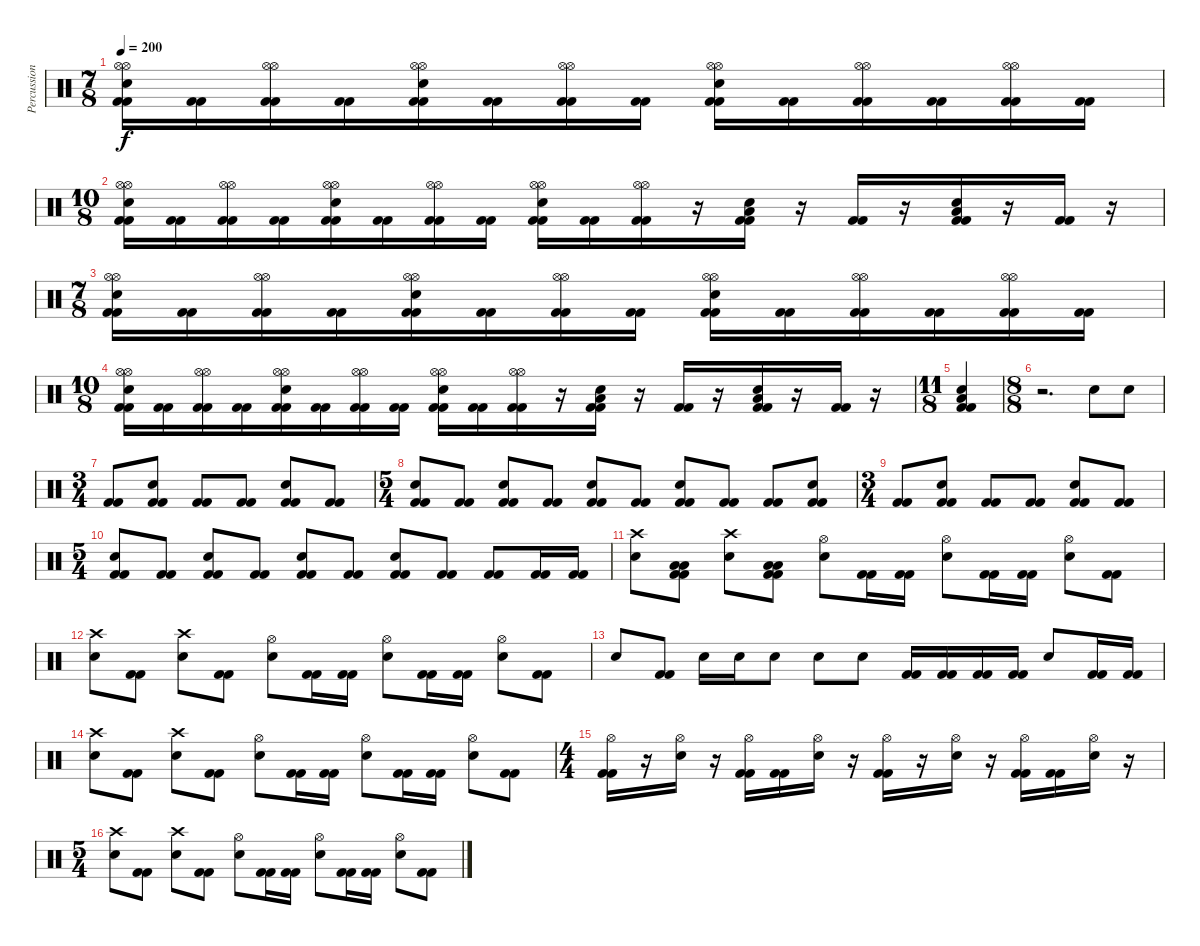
\track ("Percussions" "Percussion") {instrument percussion}
\staff {score}
\articulation defaults
\ts (7 8)
\tempo 200
\clef neutral
\ks c
("Kick (hit) 2" "Kick (hit) 2" "Electric Snare (hit)" "Hi-Hat (open)" "Hi-Hat (open)").16{dy f} ("Kick (hit) 2" "Kick (hit) 2").16 ("Kick (hit) 2" "Kick (hit) 2" "Hi-Hat (open)" "Hi-Hat (open)").16 ("Kick (hit) 2" "Kick (hit) 2").16 ("Kick (hit) 2" "Kick (hit) 2" "Electric Snare (hit)" "Hi-Hat (open)" "Hi-Hat (open)").16 ("Kick (hit) 2" "Kick (hit) 2").16 ("Kick (hit) 2" "Kick (hit) 2" "Hi-Hat (open)" "Hi-Hat (open)").16 ("Kick (hit) 2" "Kick (hit) 2").16 ("Kick (hit) 2" "Kick (hit) 2" "Electric Snare (hit)" "Hi-Hat (open)" "Hi-Hat (open)").16 ("Kick (hit) 2" "Kick (hit) 2").16 ("Kick (hit) 2" "Kick (hit) 2" "Hi-Hat (open)" "Hi-Hat (open)").16 ("Kick (hit) 2" "Kick (hit) 2").16 ("Kick (hit) 2" "Kick (hit) 2" "Hi-Hat (open)" "Hi-Hat (open)").16 ("Kick (hit) 2" "Kick (hit) 2").16 |
\ts (10 8)
("Kick (hit) 2" "Kick (hit) 2" "Electric Snare (hit)" "Hi-Hat (open)" "Hi-Hat (open)").16 ("Kick (hit) 2" "Kick (hit) 2").16 ("Kick (hit) 2" "Kick (hit) 2" "Hi-Hat (open)" "Hi-Hat (open)").16 ("Kick (hit) 2" "Kick (hit) 2").16 ("Kick (hit) 2" "Kick (hit) 2" "Electric Snare (hit)" "Hi-Hat (open)" "Hi-Hat (open)").16 ("Kick (hit) 2" "Kick (hit) 2").16 ("Kick (hit) 2" "Kick (hit) 2" "Hi-Hat (open)" "Hi-Hat (open)").16 ("Kick (hit) 2" "Kick (hit) 2").16 ("Kick (hit) 2" "Kick (hit) 2" "Electric Snare (hit)" "Hi-Hat (open)" "Hi-Hat (open)").16 ("Kick (hit) 2" "Kick (hit) 2").16 ("Kick (hit) 2" "Kick (hit) 2" "Hi-Hat (open)" "Hi-Hat (open)").16 r.16 ("Kick (hit) 2" "Kick (hit) 2" "Electric Snare (hit)" "Low Floor Tom (hit)").16 r.16 ("Kick (hit) 2" "Kick (hit) 2").16 r.16 ("Kick (hit) 2" "Kick (hit) 2" "Electric Snare (hit)" "Low Floor Tom (hit)").16 r.16 ("Kick (hit) 2" "Kick (hit) 2").16 r.16 |
\ts (7 8)
("Kick (hit) 2" "Kick (hit) 2" "Electric Snare (hit)" "Hi-Hat (open)" "Hi-Hat (open)").16 ("Kick (hit) 2" "Kick (hit) 2").16 ("Kick (hit) 2" "Kick (hit) 2" "Hi-Hat (open)" "Hi-Hat (open)").16 ("Kick (hit) 2" "Kick (hit) 2").16 ("Kick (hit) 2" "Kick (hit) 2" "Electric Snare (hit)" "Hi-Hat (open)" "Hi-Hat (open)").16 ("Kick (hit) 2" "Kick (hit) 2").16 ("Kick (hit) 2" "Kick (hit) 2" "Hi-Hat (open)" "Hi-Hat (open)").16 ("Kick (hit) 2" "Kick (hit) 2").16 ("Kick (hit) 2" "Kick (hit) 2" "Electric Snare (hit)" "Hi-Hat (open)" "Hi-Hat (open)").16 ("Kick (hit) 2" "Kick (hit) 2").16 ("Kick (hit) 2" "Kick (hit) 2" "Hi-Hat (open)" "Hi-Hat (open)").16 ("Kick (hit) 2" "Kick (hit) 2").16 ("Kick (hit) 2" "Kick (hit) 2" "Hi-Hat (open)" "Hi-Hat (open)").16 ("Kick (hit) 2" "Kick (hit) 2").16 |
\ts (10 8)
("Kick (hit) 2" "Kick (hit) 2" "Electric Snare (hit)" "Hi-Hat (open)" "Hi-Hat (open)").16 ("Kick (hit) 2" "Kick (hit) 2").16 ("Kick (hit) 2" "Kick (hit) 2" "Hi-Hat (open)" "Hi-Hat (open)").16 ("Kick (hit) 2" "Kick (hit) 2").16 ("Kick (hit) 2" "Kick (hit) 2" "Electric Snare (hit)" "Hi-Hat (open)" "Hi-Hat (open)").16 ("Kick (hit) 2" "Kick (hit) 2").16 ("Kick (hit) 2" "Kick (hit) 2" "Hi-Hat (open)" "Hi-Hat (open)").16 ("Kick (hit) 2" "Kick (hit) 2").16 ("Kick (hit) 2" "Kick (hit) 2" "Electric Snare (hit)" "Hi-Hat (open)" "Hi-Hat (open)").16 ("Kick (hit) 2" "Kick (hit) 2").16 ("Kick (hit) 2" "Kick (hit) 2" "Hi-Hat (open)" "Hi-Hat (open)").16 r.16 ("Kick (hit) 2" "Kick (hit) 2" "Electric Snare (hit)" "Low Floor Tom (hit)").16 r.16 ("Kick (hit) 2" "Kick (hit) 2").16 r.16 ("Kick (hit) 2" "Kick (hit) 2" "Electric Snare (hit)" "Low Floor Tom (hit)").16 r.16 ("Kick (hit) 2" "Kick (hit) 2").16 r.16 |
\ts (11 8)
("Electric Snare (hit)" "Kick (hit) 2" "Kick (hit) 2" "Low Floor Tom (hit)").4 |
\ts (8 8)
r.2{d} "Electric Snare (hit)".8 "Electric Snare (hit)".8 |
\ts (3 4)
("Kick (hit) 2" "Kick (hit) 2").8{volume 12} ("Kick (hit) 2" "Kick (hit) 2" "Electric Snare (hit)").8 ("Kick (hit) 2" "Kick (hit) 2").8 ("Kick (hit) 2" "Kick (hit) 2").8 ("Kick (hit) 2" "Kick (hit) 2" "Electric Snare (hit)").8 ("Kick (hit) 2" "Kick (hit) 2").8 |
\ts (5 4)
("Kick (hit) 2" "Kick (hit) 2" "Electric Snare (hit)").8 ("Kick (hit) 2" "Kick (hit) 2").8 ("Kick (hit) 2" "Kick (hit) 2" "Electric Snare (hit)").8 ("Kick (hit) 2" "Kick (hit) 2").8 ("Kick (hit) 2" "Kick (hit) 2" "Electric Snare (hit)").8 ("Kick (hit) 2" "Kick (hit) 2").8 ("Kick (hit) 2" "Kick (hit) 2" "Electric Snare (hit)").8 ("Kick (hit) 2" "Kick (hit) 2").8 ("Kick (hit) 2" "Kick (hit) 2").8 ("Kick (hit) 2" "Kick (hit) 2" "Electric Snare (hit)").8 |
\ts (3 4)
("Kick (hit) 2" "Kick (hit) 2").8 ("Kick (hit) 2" "Kick (hit) 2" "Electric Snare (hit)").8 ("Kick (hit) 2" "Kick (hit) 2").8 ("Kick (hit) 2" "Kick (hit) 2").8 ("Kick (hit) 2" "Kick (hit) 2" "Electric Snare (hit)").8 ("Kick (hit) 2" "Kick (hit) 2").8 |
\ts (5 4)
("Kick (hit) 2" "Kick (hit) 2" "Electric Snare (hit)").8 ("Kick (hit) 2" "Kick (hit) 2").8 ("Kick (hit) 2" "Kick (hit) 2" "Electric Snare (hit)").8 ("Kick (hit) 2" "Kick (hit) 2").8 ("Kick (hit) 2" "Kick (hit) 2" "Electric Snare (hit)").8 ("Kick (hit) 2" "Kick (hit) 2").8 ("Kick (hit) 2" "Kick (hit) 2" "Electric Snare (hit)").8 ("Kick (hit) 2" "Kick (hit) 2").8 ("Kick (hit) 2" "Kick (hit) 2").8 ("Kick (hit) 2" "Kick (hit) 2").16 ("Kick (hit) 2" "Kick (hit) 2").16 |
("Electric Snare (hit)" "Crash high (hit)").8{volume 8} ("Kick (hit) 2" "Kick (hit) 2" "Low Tom (hit)" "Low Floor Tom (hit)").8 ("Electric Snare (hit)" "Crash high (hit)").8 ("Kick (hit) 2" "Kick (hit) 2" "Low Tom (hit)" "Low Floor Tom (hit)").8 ("Electric Snare (hit)" "Hi-Hat (open)").8 ("Kick (hit) 2" "Kick (hit) 2").16 ("Kick (hit) 2" "Kick (hit) 2").16 ("Electric Snare (hit)" "Hi-Hat (open)").8 ("Kick (hit) 2" "Kick (hit) 2").16 ("Kick (hit) 2" "Kick (hit) 2").16 ("Electric Snare (hit)" "Hi-Hat (open)").8 ("Kick (hit) 2" "Kick (hit) 2").8 |
("Electric Snare (hit)" "Crash high (hit)").8 ("Kick (hit) 2" "Kick (hit) 2").8 ("Electric Snare (hit)" "Crash high (hit)").8 ("Kick (hit) 2" "Kick (hit) 2").8 ("Electric Snare (hit)" "Hi-Hat (open)").8 ("Kick (hit) 2" "Kick (hit) 2").16 ("Kick (hit) 2" "Kick (hit) 2").16 ("Electric Snare (hit)" "Hi-Hat (open)").8 ("Kick (hit) 2" "Kick (hit) 2").16 ("Kick (hit) 2" "Kick (hit) 2").16 ("Electric Snare (hit)" "Hi-Hat (open)").8 ("Kick (hit) 2" "Kick (hit) 2").8 |
"Electric Snare (hit)".8 ("Kick (hit) 2" "Kick (hit) 2").8 "Electric Snare (hit)".16 "Electric Snare (hit)".16 "Electric Snare (hit)".8 "Electric Snare (hit)".8 "Electric Snare (hit)".8 ("Kick (hit) 2" "Kick (hit) 2").16 ("Kick (hit) 2" "Kick (hit) 2").16 ("Kick (hit) 2" "Kick (hit) 2").16 ("Kick (hit) 2" "Kick (hit) 2").16 "Electric Snare (hit)".8 ("Kick (hit) 2" "Kick (hit) 2").16 ("Kick (hit) 2" "Kick (hit) 2").16 |
("Electric Snare (hit)" "Crash high (hit)").8 ("Kick (hit) 2" "Kick (hit) 2").8 ("Electric Snare (hit)" "Crash high (hit)").8 ("Kick (hit) 2" "Kick (hit) 2").8 ("Electric Snare (hit)" "Hi-Hat (open)").8 ("Kick (hit) 2" "Kick (hit) 2").16 ("Kick (hit) 2" "Kick (hit) 2").16 ("Electric Snare (hit)" "Hi-Hat (open)").8 ("Kick (hit) 2" "Kick (hit) 2").16 ("Kick (hit) 2" "Kick (hit) 2").16 ("Electric Snare (hit)" "Hi-Hat (open)").8 ("Kick (hit) 2" "Kick (hit) 2").8 |
\ts (4 4)
("Kick (hit) 2" "Kick (hit) 2" "Hi-Hat (open)").16 r.16 ("Electric Snare (hit)" "Hi-Hat (open)").16 r.16 ("Kick (hit) 2" "Kick (hit) 2" "Hi-Hat (open)").16 ("Kick (hit) 2" "Kick (hit) 2").16 ("Electric Snare (hit)" "Hi-Hat (open)").16 r.16 ("Kick (hit) 2" "Kick (hit) 2" "Hi-Hat (open)").16 r.16 ("Electric Snare (hit)" "Hi-Hat (open)").16 r.16 ("Kick (hit) 2" "Kick (hit) 2" "Hi-Hat (open)").16 ("Kick (hit) 2" "Kick (hit) 2").16 ("Electric Snare (hit)" "Hi-Hat (open)").16 r.16 |
\ts (5 4)
("Electric Snare (hit)" "Crash high (hit)").8 ("Kick (hit) 2" "Kick (hit) 2").8 ("Electric Snare (hit)" "Crash high (hit)").8 ("Kick (hit) 2" "Kick (hit) 2").8 ("Electric Snare (hit)" "Hi-Hat (open)").8 ("Kick (hit) 2" "Kick (hit) 2").16 ("Kick (hit) 2" "Kick (hit) 2").16 ("Electric Snare (hit)" "Hi-Hat (open)").8 ("Kick (hit) 2" "Kick (hit) 2").16 ("Kick (hit) 2" "Kick (hit) 2").16 ("Electric Snare (hit)" "Hi-Hat (open)").8 ("Kick (hit) 2" "Kick (hit) 2").8
